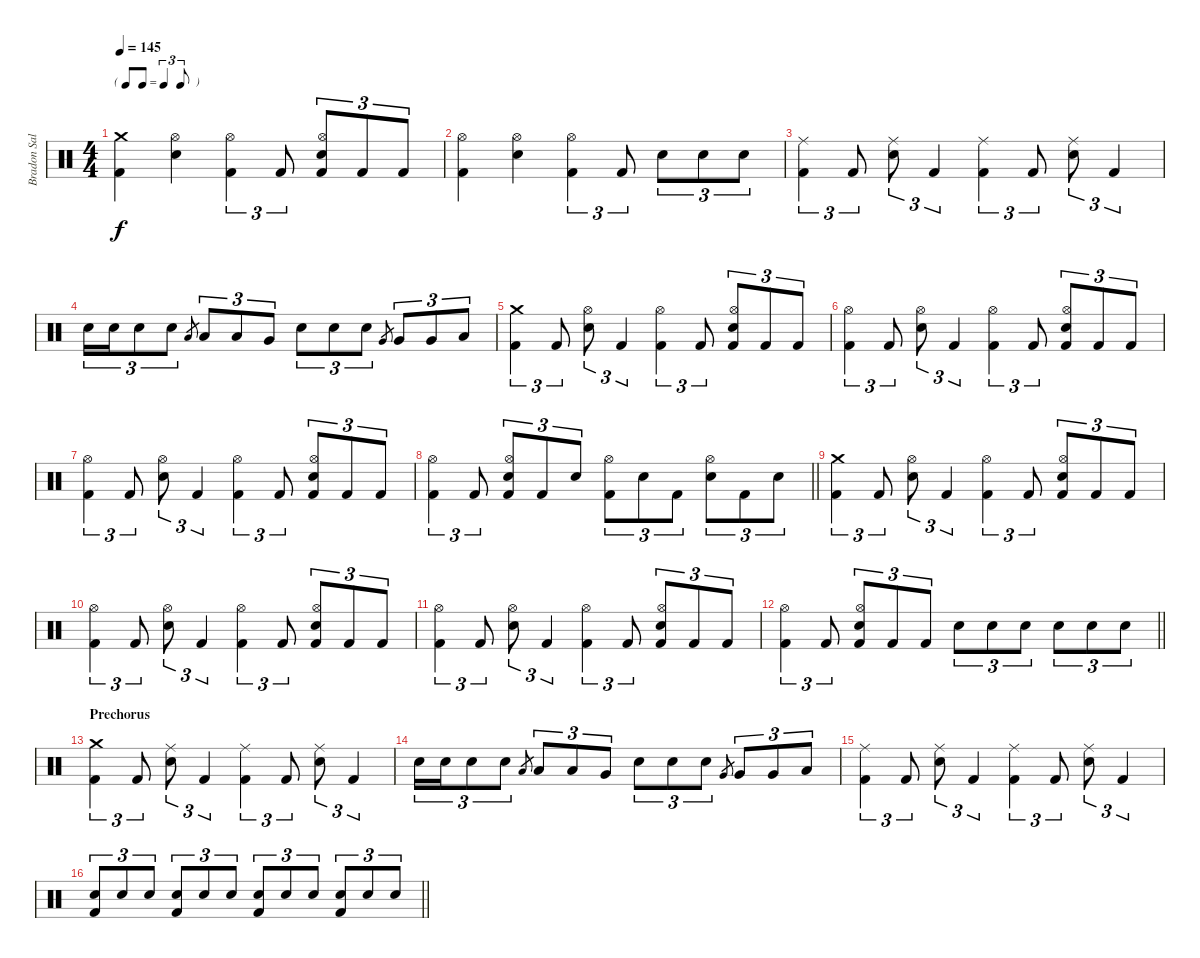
\track ("Bradon Saller" "Bradon Sal") {instrument percussion}
\staff {score}
\articulation defaults
\ts (4 4)
\tf triplet8th
\tempo 145
\clef neutral
\ks c
("Crash medium (hit)" "Kick (hit) 2").4{dy f} ("Hi-Hat (open)" "Electric Snare (hit)").4 ("Hi-Hat (open)" "Kick (hit) 2").4{tu (3 2)} "Kick (hit) 2".8{tu (3 2)} ("Hi-Hat (open)" "Electric Snare (hit)" "Kick (hit) 2").8{tu (3 2)} "Kick (hit) 2".8{tu (3 2)} "Kick (hit) 2".8{tu (3 2)} |
("Hi-Hat (open)" "Kick (hit) 2").4 ("Hi-Hat (open)" "Electric Snare (hit)").4 ("Hi-Hat (open)" "Kick (hit) 2").4{tu (3 2)} "Kick (hit) 2".8{tu (3 2)} "Electric Snare (hit)".8{tu (3 2)} "Electric Snare (hit)".8{tu (3 2)} "Electric Snare (hit)".8{tu (3 2)} |
("Ride (middle)" "Kick (hit) 2").4{tu (3 2)} "Kick (hit) 2".8{tu (3 2)} ("Ride (middle)" "Electric Snare (hit)").8{tu (3 2)} "Kick (hit) 2".4{tu (3 2)} ("Ride (middle)" "Kick (hit) 2").4{tu (3 2)} "Kick (hit) 2".8{tu (3 2)} ("Ride (middle)" "Electric Snare (hit)").8{tu (3 2)} "Kick (hit) 2".4{tu (3 2)} |
"Electric Snare (hit)".16{tu (3 2)} "Electric Snare (hit)".16{tu (3 2)} "Electric Snare (hit)".8{tu (3 2)} "Electric Snare (hit)".8{tu (3 2)} "Low Tom (hit)".8{gr} "Low Tom (hit)".8{tu (3 2)} "Low Tom (hit)".8{tu (3 2)} "Very Low Tom (hit)".8{tu (3 2)} "Electric Snare (hit)".8{tu (3 2)} "Electric Snare (hit)".8{tu (3 2)} "Electric Snare (hit)".8{tu (3 2)} "Very Low Tom (hit)".8{gr} "Very Low Tom (hit)".8{tu (3 2)} "Very Low Tom (hit)".8{tu (3 2)} "Low Floor Tom (hit)".8{tu (3 2)} |
("Crash medium (hit)" "Kick (hit) 2").4{tu (3 2)} "Kick (hit) 2".8{tu (3 2)} ("Hi-Hat (open)" "Electric Snare (hit)").8{tu (3 2)} "Kick (hit) 2".4{tu (3 2)} ("Hi-Hat (open)" "Kick (hit) 2").4{tu (3 2)} "Kick (hit) 2".8{tu (3 2)} ("Hi-Hat (open)" "Electric Snare (hit)" "Kick (hit) 2").8{tu (3 2)} "Kick (hit) 2".8{tu (3 2)} "Kick (hit) 2".8{tu (3 2)} |
("Hi-Hat (open)" "Kick (hit) 2").4{tu (3 2)} "Kick (hit) 2".8{tu (3 2)} ("Hi-Hat (open)" "Electric Snare (hit)").8{tu (3 2)} "Kick (hit) 2".4{tu (3 2)} ("Hi-Hat (open)" "Kick (hit) 2").4{tu (3 2)} "Kick (hit) 2".8{tu (3 2)} ("Hi-Hat (open)" "Electric Snare (hit)" "Kick (hit) 2").8{tu (3 2)} "Kick (hit) 2".8{tu (3 2)} "Kick (hit) 2".8{tu (3 2)} |
("Hi-Hat (open)" "Kick (hit) 2").4{tu (3 2)} "Kick (hit) 2".8{tu (3 2)} ("Hi-Hat (open)" "Electric Snare (hit)").8{tu (3 2)} "Kick (hit) 2".4{tu (3 2)} ("Hi-Hat (open)" "Kick (hit) 2").4{tu (3 2)} "Kick (hit) 2".8{tu (3 2)} ("Hi-Hat (open)" "Electric Snare (hit)" "Kick (hit) 2").8{tu (3 2)} "Kick (hit) 2".8{tu (3 2)} "Kick (hit) 2".8{tu (3 2)} |
\barLineRight lightlight
("Hi-Hat (open)" "Kick (hit) 2").4{tu (3 2)} "Kick (hit) 2".8{tu (3 2)} ("Hi-Hat (open)" "Electric Snare (hit)" "Kick (hit) 2").8{tu (3 2)} "Kick (hit) 2".8{tu (3 2)} "Electric Snare (hit)".8{tu (3 2)} ("Hi-Hat (open)" "Kick (hit) 2").8{tu (3 2)} "Electric Snare (hit)".8{tu (3 2)} "Kick (hit) 2".8{tu (3 2)} ("Hi-Hat (open)" "Electric Snare (hit)").8{tu (3 2)} "Kick (hit) 2".8{tu (3 2)} "Electric Snare (hit)".8{tu (3 2)} |
("Crash medium (hit)" "Kick (hit) 2").4{tu (3 2)} "Kick (hit) 2".8{tu (3 2)} ("Hi-Hat (open)" "Electric Snare (hit)").8{tu (3 2)} "Kick (hit) 2".4{tu (3 2)} ("Hi-Hat (open)" "Kick (hit) 2").4{tu (3 2)} "Kick (hit) 2".8{tu (3 2)} ("Hi-Hat (open)" "Electric Snare (hit)" "Kick (hit) 2").8{tu (3 2)} "Kick (hit) 2".8{tu (3 2)} "Kick (hit) 2".8{tu (3 2)} |
("Hi-Hat (open)" "Kick (hit) 2").4{tu (3 2)} "Kick (hit) 2".8{tu (3 2)} ("Hi-Hat (open)" "Electric Snare (hit)").8{tu (3 2)} "Kick (hit) 2".4{tu (3 2)} ("Hi-Hat (open)" "Kick (hit) 2").4{tu (3 2)} "Kick (hit) 2".8{tu (3 2)} ("Hi-Hat (open)" "Electric Snare (hit)" "Kick (hit) 2").8{tu (3 2)} "Kick (hit) 2".8{tu (3 2)} "Kick (hit) 2".8{tu (3 2)} |
("Hi-Hat (open)" "Kick (hit) 2").4{tu (3 2)} "Kick (hit) 2".8{tu (3 2)} ("Hi-Hat (open)" "Electric Snare (hit)").8{tu (3 2)} "Kick (hit) 2".4{tu (3 2)} ("Hi-Hat (open)" "Kick (hit) 2").4{tu (3 2)} "Kick (hit) 2".8{tu (3 2)} ("Hi-Hat (open)" "Electric Snare (hit)" "Kick (hit) 2").8{tu (3 2)} "Kick (hit) 2".8{tu (3 2)} "Kick (hit) 2".8{tu (3 2)} |
\barLineRight lightlight
("Hi-Hat (open)" "Kick (hit) 2").4{tu (3 2)} "Kick (hit) 2".8{tu (3 2)} ("Hi-Hat (open)" "Electric Snare (hit)" "Kick (hit) 2").8{tu (3 2)} "Kick (hit) 2".8{tu (3 2)} "Kick (hit) 2".8{tu (3 2)} "Electric Snare (hit)".8{tu (3 2)} "Electric Snare (hit)".8{tu (3 2)} "Electric Snare (hit)".8{tu (3 2)} "Electric Snare (hit)".8{tu (3 2)} "Electric Snare (hit)".8{tu (3 2)} "Electric Snare (hit)".8{tu (3 2)} |
\section ("" "Prechorus")
("Crash medium (hit)" "Kick (hit) 2").4{tu (3 2)} "Kick (hit) 2".8{tu (3 2)} ("Ride (middle)" "Electric Snare (hit)").8{tu (3 2)} "Kick (hit) 2".4{tu (3 2)} ("Ride (middle)" "Kick (hit) 2").4{tu (3 2)} "Kick (hit) 2".8{tu (3 2)} ("Ride (middle)" "Electric Snare (hit)").8{tu (3 2)} "Kick (hit) 2".4{tu (3 2)} |
"Electric Snare (hit)".16{tu (3 2)} "Electric Snare (hit)".16{tu (3 2)} "Electric Snare (hit)".8{tu (3 2)} "Electric Snare (hit)".8{tu (3 2)} "Low Tom (hit)".8{gr} "Low Tom (hit)".8{tu (3 2)} "Low Tom (hit)".8{tu (3 2)} "Very Low Tom (hit)".8{tu (3 2)} "Electric Snare (hit)".8{tu (3 2)} "Electric Snare (hit)".8{tu (3 2)} "Electric Snare (hit)".8{tu (3 2)} "Very Low Tom (hit)".8{gr} "Very Low Tom (hit)".8{tu (3 2)} "Very Low Tom (hit)".8{tu (3 2)} "Low Floor Tom (hit)".8{tu (3 2)} |
("Ride (middle)" "Kick (hit) 2").4{tu (3 2)} "Kick (hit) 2".8{tu (3 2)} ("Ride (middle)" "Electric Snare (hit)").8{tu (3 2)} "Kick (hit) 2".4{tu (3 2)} ("Ride (middle)" "Kick (hit) 2").4{tu (3 2)} "Kick (hit) 2".8{tu (3 2)} ("Ride (middle)" "Electric Snare (hit)").8{tu (3 2)} "Kick (hit) 2".4{tu (3 2)} |
\barLineRight lightlight
("Electric Snare (hit)" "Kick (hit) 2").8{tu (3 2)} "Electric Snare (hit)".8{tu (3 2)} "Electric Snare (hit)".8{tu (3 2)} ("Electric Snare (hit)" "Kick (hit) 2").8{tu (3 2)} "Electric Snare (hit)".8{tu (3 2)} "Electric Snare (hit)".8{tu (3 2)} ("Electric Snare (hit)" "Kick (hit) 2").8{tu (3 2)} "Electric Snare (hit)".8{tu (3 2)} "Electric Snare (hit)".8{tu (3 2)} ("Electric Snare (hit)" "Kick (hit) 2").8{tu (3 2)} "Electric Snare (hit)".8{tu (3 2)} "Electric Snare (hit)".8{tu (3 2)}
